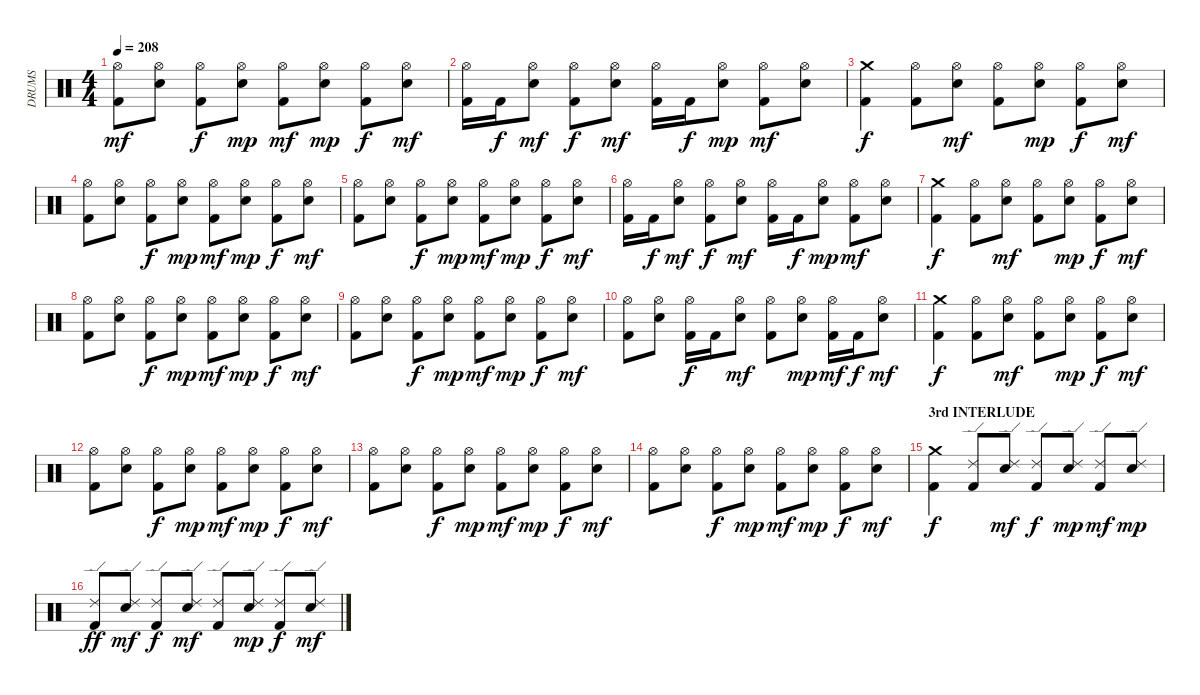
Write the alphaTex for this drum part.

\track ("DRUMS" "DRUMS") {instrument percussion}
\staff {score}
\articulation defaults
\ts (4 4)
\tempo 208
\clef neutral
\ks c
("Hi-Hat (open)" "Kick (hit) 2").8{dy mf} ("Hi-Hat (open)" "Electric Snare (hit)").8 ("Hi-Hat (open)" "Kick (hit) 2").8{dy f} ("Hi-Hat (open)" "Electric Snare (hit)").8{dy mp} ("Hi-Hat (open)" "Kick (hit) 2").8{dy mf} ("Hi-Hat (open)" "Electric Snare (hit)").8{dy mp} ("Hi-Hat (open)" "Kick (hit) 2").8{dy f} ("Hi-Hat (open)" "Electric Snare (hit)").8{dy mf} |
("Hi-Hat (open)" "Kick (hit) 2").16 "Kick (hit) 2".16{dy f} ("Hi-Hat (open)" "Electric Snare (hit)").8{dy mf} ("Hi-Hat (open)" "Kick (hit) 2").8{dy f} ("Hi-Hat (open)" "Electric Snare (hit)").8{dy mf} ("Hi-Hat (open)" "Kick (hit) 2").16 "Kick (hit) 2".16{dy f} ("Hi-Hat (open)" "Electric Snare (hit)").8{dy mp} ("Hi-Hat (open)" "Kick (hit) 2").8{dy mf} ("Hi-Hat (open)" "Electric Snare (hit)").8 |
("Crash medium (hit)" "Kick (hit) 2").4{dy f} ("Hi-Hat (open)" "Kick (hit) 2").8 ("Hi-Hat (open)" "Electric Snare (hit)").8{dy mf} ("Hi-Hat (open)" "Kick (hit) 2").8 ("Hi-Hat (open)" "Electric Snare (hit)").8{dy mp} ("Hi-Hat (open)" "Kick (hit) 2").8{dy f} ("Hi-Hat (open)" "Electric Snare (hit)").8{dy mf} |
("Hi-Hat (open)" "Kick (hit) 2").8 ("Hi-Hat (open)" "Electric Snare (hit)").8 ("Hi-Hat (open)" "Kick (hit) 2").8{dy f} ("Hi-Hat (open)" "Electric Snare (hit)").8{dy mp} ("Hi-Hat (open)" "Kick (hit) 2").8{dy mf} ("Hi-Hat (open)" "Electric Snare (hit)").8{dy mp} ("Hi-Hat (open)" "Kick (hit) 2").8{dy f} ("Hi-Hat (open)" "Electric Snare (hit)").8{dy mf} |
("Hi-Hat (open)" "Kick (hit) 2").8 ("Hi-Hat (open)" "Electric Snare (hit)").8 ("Hi-Hat (open)" "Kick (hit) 2").8{dy f} ("Hi-Hat (open)" "Electric Snare (hit)").8{dy mp} ("Hi-Hat (open)" "Kick (hit) 2").8{dy mf} ("Hi-Hat (open)" "Electric Snare (hit)").8{dy mp} ("Hi-Hat (open)" "Kick (hit) 2").8{dy f} ("Hi-Hat (open)" "Electric Snare (hit)").8{dy mf} |
("Hi-Hat (open)" "Kick (hit) 2").16 "Kick (hit) 2".16{dy f} ("Hi-Hat (open)" "Electric Snare (hit)").8{dy mf} ("Hi-Hat (open)" "Kick (hit) 2").8{dy f} ("Hi-Hat (open)" "Electric Snare (hit)").8{dy mf} ("Hi-Hat (open)" "Kick (hit) 2").16 "Kick (hit) 2".16{dy f} ("Hi-Hat (open)" "Electric Snare (hit)").8{dy mp} ("Hi-Hat (open)" "Kick (hit) 2").8{dy mf} ("Hi-Hat (open)" "Electric Snare (hit)").8 |
("Crash medium (hit)" "Kick (hit) 2").4{dy f} ("Hi-Hat (open)" "Kick (hit) 2").8 ("Hi-Hat (open)" "Electric Snare (hit)").8{dy mf} ("Hi-Hat (open)" "Kick (hit) 2").8 ("Hi-Hat (open)" "Electric Snare (hit)").8{dy mp} ("Hi-Hat (open)" "Kick (hit) 2").8{dy f} ("Hi-Hat (open)" "Electric Snare (hit)").8{dy mf} |
("Hi-Hat (open)" "Kick (hit) 2").8 ("Hi-Hat (open)" "Electric Snare (hit)").8 ("Hi-Hat (open)" "Kick (hit) 2").8{dy f} ("Hi-Hat (open)" "Electric Snare (hit)").8{dy mp} ("Hi-Hat (open)" "Kick (hit) 2").8{dy mf} ("Hi-Hat (open)" "Electric Snare (hit)").8{dy mp} ("Hi-Hat (open)" "Kick (hit) 2").8{dy f} ("Hi-Hat (open)" "Electric Snare (hit)").8{dy mf} |
("Hi-Hat (open)" "Kick (hit) 2").8 ("Hi-Hat (open)" "Electric Snare (hit)").8 ("Hi-Hat (open)" "Kick (hit) 2").8{dy f} ("Hi-Hat (open)" "Electric Snare (hit)").8{dy mp} ("Hi-Hat (open)" "Kick (hit) 2").8{dy mf} ("Hi-Hat (open)" "Electric Snare (hit)").8{dy mp} ("Hi-Hat (open)" "Kick (hit) 2").8{dy f} ("Hi-Hat (open)" "Electric Snare (hit)").8{dy mf} |
("Hi-Hat (open)" "Kick (hit) 2").8 ("Hi-Hat (open)" "Electric Snare (hit)").8 ("Hi-Hat (open)" "Kick (hit) 2").16{dy f} "Kick (hit) 2".16 ("Hi-Hat (open)" "Electric Snare (hit)").8{dy mf} ("Hi-Hat (open)" "Kick (hit) 2").8 ("Hi-Hat (open)" "Electric Snare (hit)").8{dy mp} ("Hi-Hat (open)" "Kick (hit) 2").16{dy mf} "Kick (hit) 2".16{dy f} ("Hi-Hat (open)" "Electric Snare (hit)").8{dy mf} |
("Crash medium (hit)" "Kick (hit) 2").4{dy f} ("Hi-Hat (open)" "Kick (hit) 2").8 ("Hi-Hat (open)" "Electric Snare (hit)").8{dy mf} ("Hi-Hat (open)" "Kick (hit) 2").8 ("Hi-Hat (open)" "Electric Snare (hit)").8{dy mp} ("Hi-Hat (open)" "Kick (hit) 2").8{dy f} ("Hi-Hat (open)" "Electric Snare (hit)").8{dy mf} |
("Hi-Hat (open)" "Kick (hit) 2").8 ("Hi-Hat (open)" "Electric Snare (hit)").8 ("Hi-Hat (open)" "Kick (hit) 2").8{dy f} ("Hi-Hat (open)" "Electric Snare (hit)").8{dy mp} ("Hi-Hat (open)" "Kick (hit) 2").8{dy mf} ("Hi-Hat (open)" "Electric Snare (hit)").8{dy mp} ("Hi-Hat (open)" "Kick (hit) 2").8{dy f} ("Hi-Hat (open)" "Electric Snare (hit)").8{dy mf} |
("Hi-Hat (open)" "Kick (hit) 2").8 ("Hi-Hat (open)" "Electric Snare (hit)").8 ("Hi-Hat (open)" "Kick (hit) 2").8{dy f} ("Hi-Hat (open)" "Electric Snare (hit)").8{dy mp} ("Hi-Hat (open)" "Kick (hit) 2").8{dy mf} ("Hi-Hat (open)" "Electric Snare (hit)").8{dy mp} ("Hi-Hat (open)" "Kick (hit) 2").8{dy f} ("Hi-Hat (open)" "Electric Snare (hit)").8{dy mf} |
("Hi-Hat (open)" "Kick (hit) 2").8 ("Hi-Hat (open)" "Electric Snare (hit)").8 ("Hi-Hat (open)" "Kick (hit) 2").8{dy f} ("Hi-Hat (open)" "Electric Snare (hit)").8{dy mp} ("Hi-Hat (open)" "Kick (hit) 2").8{dy mf} ("Hi-Hat (open)" "Electric Snare (hit)").8{dy mp} ("Hi-Hat (open)" "Kick (hit) 2").8{dy f} ("Hi-Hat (open)" "Electric Snare (hit)").8{dy mf} |
\section ("" "3rd INTERLUDE")
("Crash medium (hit)" "Kick (hit) 2").4{dy f} ("Ride (edge) 2" "Kick (hit) 2").8 ("Ride (edge) 2" "Electric Snare (hit)").8{dy mf} ("Ride (edge) 2" "Kick (hit) 2").8{dy f} ("Ride (edge) 2" "Electric Snare (hit)").8{dy mp} ("Ride (edge) 2" "Kick (hit) 2").8{dy mf} ("Ride (edge) 2" "Electric Snare (hit)").8{dy mp} |
("Ride (edge) 2" "Kick (hit) 2").8{dy ff} ("Ride (edge) 2" "Electric Snare (hit)").8{dy mf} ("Ride (edge) 2" "Kick (hit) 2").8{dy f} ("Ride (edge) 2" "Electric Snare (hit)").8{dy mf} ("Ride (edge) 2" "Kick (hit) 2").8 ("Ride (edge) 2" "Electric Snare (hit)").8{dy mp} ("Ride (edge) 2" "Kick (hit) 2").8{dy f} ("Ride (edge) 2" "Electric Snare (hit)").8{dy mf}
